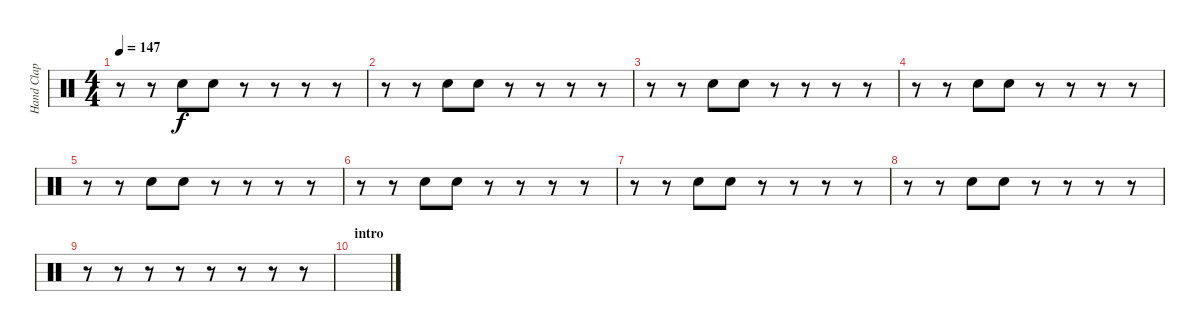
\track ("Hand Clap" "Hand Clap") {instrument percussion}
\staff {score}
\articulation defaults
\ts (4 4)
\tempo 147
\clef neutral
\ks c
r.8{dy f} r.8 "Hand Clap (hit)".8 "Hand Clap (hit)".8 r.8 r.8 r.8 r.8 |
r.8 r.8 "Hand Clap (hit)".8 "Hand Clap (hit)".8 r.8 r.8 r.8 r.8 |
r.8 r.8 "Hand Clap (hit)".8 "Hand Clap (hit)".8 r.8 r.8 r.8 r.8 |
r.8 r.8 "Hand Clap (hit)".8 "Hand Clap (hit)".8 r.8 r.8 r.8 r.8 |
r.8 r.8 "Hand Clap (hit)".8 "Hand Clap (hit)".8 r.8 r.8 r.8 r.8 |
r.8 r.8 "Hand Clap (hit)".8 "Hand Clap (hit)".8 r.8 r.8 r.8 r.8 |
r.8 r.8 "Hand Clap (hit)".8 "Hand Clap (hit)".8 r.8 r.8 r.8 r.8 |
r.8 r.8 "Hand Clap (hit)".8 "Hand Clap (hit)".8 r.8 r.8 r.8 r.8 |
r.8 r.8 r.8 r.8 r.8 r.8 r.8 r.8 |
\section ("" "intro")
